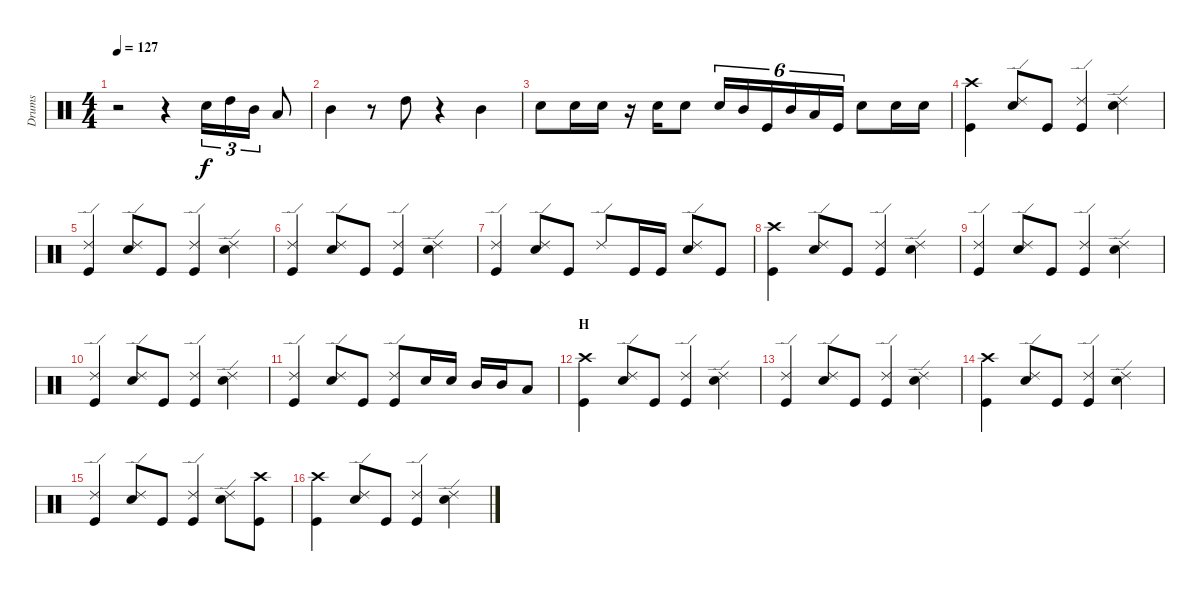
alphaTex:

\track ("Drums" "Drums") {instrument percussion}
\staff {score}
\articulation defaults
\ts (4 4)
\tempo 127
\clef neutral
\ks c
r.2{dy f} r.4 "Snare (hit) 2".16{tu (3 2)} "High Tom (hit)".16{tu (3 2)} "Mid Tom (hit)".16{tu (3 2)} "Low Tom (hit)".8 |
"Mid Tom (hit)".4 r.8 "High Tom (hit)".8 r.4 "Mid Tom (hit)".4 |
"Snare (hit) 2".8 "Snare (hit) 2".16 "Snare (hit) 2".16 r.16 "Snare (hit) 2".16 "Snare (hit) 2".8 "Snare (hit) 2".16{tu (6 4)} "Mid Tom (hit)".16{tu (6 4)} "Kick (hit)".16{tu (6 4)} "Mid Tom (hit)".16{tu (6 4)} "Low Tom (hit)".16{tu (6 4)} "Kick (hit)".16{tu (6 4)} "Snare (hit) 2".8 "Snare (hit) 2".16 "Snare (hit) 2".16 |
("Crash high (hit)" "Kick (hit)").4 ("Ride (edge) 2" "Snare (hit) 2").8 "Kick (hit)".8 ("Ride (edge) 2" "Kick (hit)").4 ("Ride (edge) 2" "Snare (hit) 2").4 |
("Ride (edge) 2" "Kick (hit)").4 ("Ride (edge) 2" "Snare (hit) 2").8 "Kick (hit)".8 ("Ride (edge) 2" "Kick (hit)").4 ("Ride (edge) 2" "Snare (hit) 2").4 |
("Ride (edge) 2" "Kick (hit)").4 ("Ride (edge) 2" "Snare (hit) 2").8 "Kick (hit)".8 ("Ride (edge) 2" "Kick (hit)").4 ("Ride (edge) 2" "Snare (hit) 2").4 |
("Ride (edge) 2" "Kick (hit)").4 ("Ride (edge) 2" "Snare (hit) 2").8 "Kick (hit)".8 "Ride (edge) 2".8 "Kick (hit)".16 "Kick (hit)".16 ("Ride (edge) 2" "Snare (hit) 2").8 "Kick (hit)".8 |
("Crash high (hit)" "Kick (hit)").4 ("Ride (edge) 2" "Snare (hit) 2").8 "Kick (hit)".8 ("Ride (edge) 2" "Kick (hit)").4 ("Ride (edge) 2" "Snare (hit) 2").4 |
("Ride (edge) 2" "Kick (hit)").4 ("Ride (edge) 2" "Snare (hit) 2").8 "Kick (hit)".8 ("Ride (edge) 2" "Kick (hit)").4 ("Ride (edge) 2" "Snare (hit) 2").4 |
("Ride (edge) 2" "Kick (hit)").4 ("Ride (edge) 2" "Snare (hit) 2").8 "Kick (hit)".8 ("Ride (edge) 2" "Kick (hit)").4 ("Ride (edge) 2" "Snare (hit) 2").4 |
("Ride (edge) 2" "Kick (hit)").4 ("Ride (edge) 2" "Snare (hit) 2").8 "Kick (hit)".8 ("Ride (edge) 2" "Kick (hit)").8 "Snare (hit) 2".16 "Snare (hit) 2".16 "Mid Tom (hit)".16 "Mid Tom (hit)".16 "Low Tom (hit)".8 |
\section ("" "H")
("Crash high (hit)" "Kick (hit)").4 ("Ride (edge) 2" "Snare (hit) 2").8 "Kick (hit)".8 ("Ride (edge) 2" "Kick (hit)").4 ("Ride (edge) 2" "Snare (hit) 2").4 |
("Ride (edge) 2" "Kick (hit)").4 ("Ride (edge) 2" "Snare (hit) 2").8 "Kick (hit)".8 ("Ride (edge) 2" "Kick (hit)").4 ("Ride (edge) 2" "Snare (hit) 2").4 |
("Crash high (hit)" "Kick (hit)").4 ("Ride (edge) 2" "Snare (hit) 2").8 "Kick (hit)".8 ("Ride (edge) 2" "Kick (hit)").4 ("Ride (edge) 2" "Snare (hit) 2").4 |
("Ride (edge) 2" "Kick (hit)").4 ("Ride (edge) 2" "Snare (hit) 2").8 "Kick (hit)".8 ("Ride (edge) 2" "Kick (hit)").4 ("Ride (edge) 2" "Snare (hit) 2").8 ("Crash high (hit)" "Kick (hit)").8 |
("Crash high (hit)" "Kick (hit)").4 ("Ride (edge) 2" "Snare (hit) 2").8 "Kick (hit)".8 ("Ride (edge) 2" "Kick (hit)").4 ("Ride (edge) 2" "Snare (hit) 2").4
